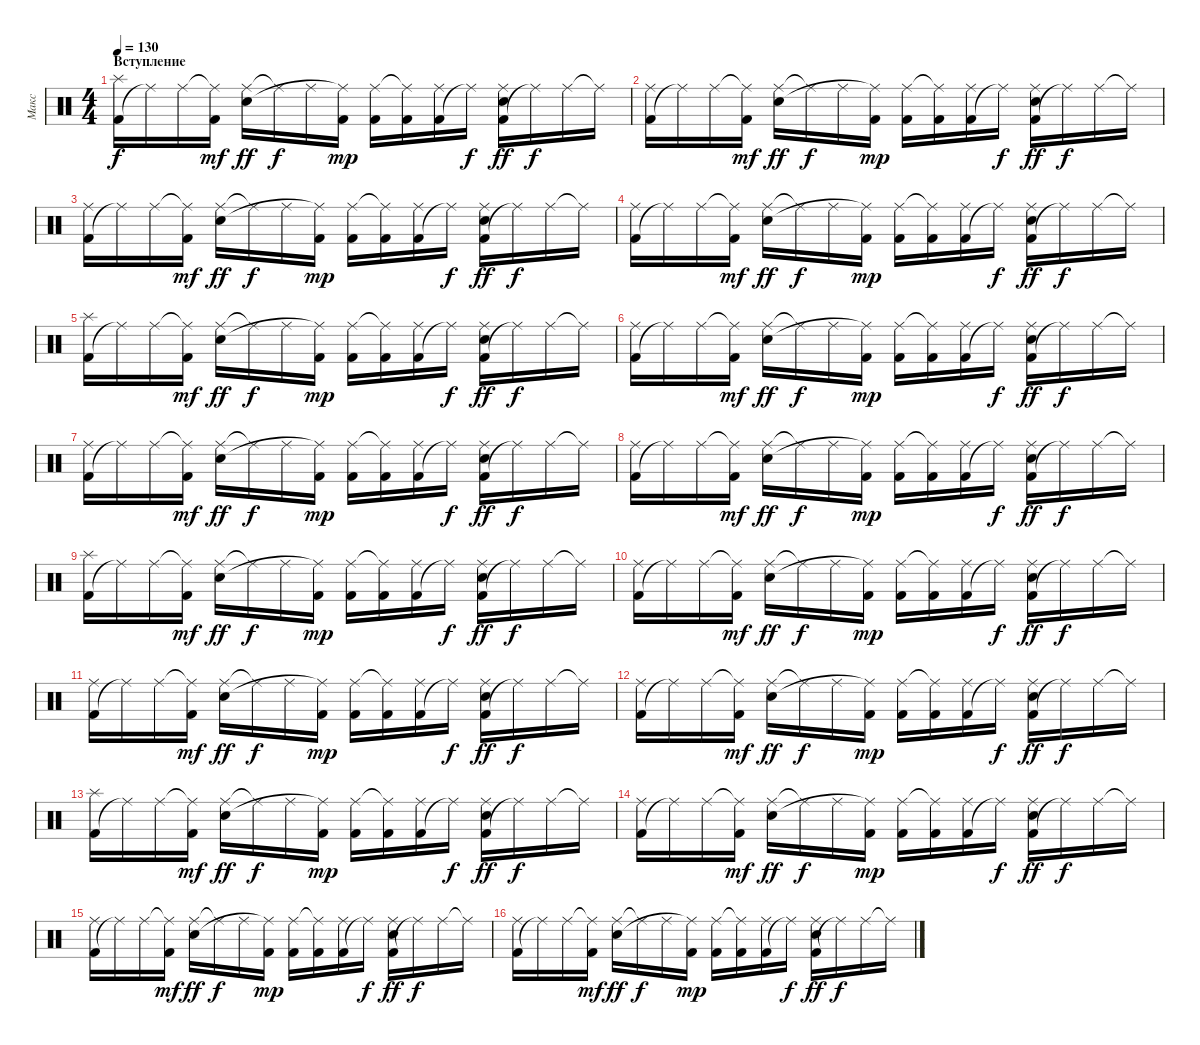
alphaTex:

\track ("Макс" "Макс") {instrument percussion}
\staff {score}
\articulation defaults
\ts (4 4)
\section ("" "Вступление")
\tempo 130
\clef neutral
\ks c
("Kick (hit) 2" "Splash (hit)").16{dy f} "Ride (middle)"{t}.16 "Ride (middle)".16 ("Ride (middle)"{t} "Kick (hit) 2").16{dy mf} ("Ride (middle)" "Electric Snare (hit)").16{dy ff} "Ride (middle)"{t}.16{dy f} "Ride (middle)".16 ("Kick (hit) 2" "Ride (middle)"{t}).16{dy mp} ("Kick (hit) 2" "Ride (middle)").16 ("Kick (hit) 2" "Ride (middle)"{t}).16 ("Kick (hit) 2" "Ride (middle)").16 "Ride (middle)"{t}.16{dy f} ("Kick (hit) 2" "Ride (middle)" "Electric Snare (hit)").16{dy ff} "Ride (middle)"{t}.16{dy f} "Ride (middle)".16 "Ride (middle)"{t}.16 |
("Kick (hit) 2" "Ride (middle)").16 "Ride (middle)"{t}.16 "Ride (middle)".16 ("Ride (middle)"{t} "Kick (hit) 2").16{dy mf} ("Ride (middle)" "Electric Snare (hit)").16{dy ff} "Ride (middle)"{t}.16{dy f} "Ride (middle)".16 ("Kick (hit) 2" "Ride (middle)"{t}).16{dy mp} ("Kick (hit) 2" "Ride (middle)").16 ("Kick (hit) 2" "Ride (middle)"{t}).16 ("Kick (hit) 2" "Ride (middle)").16 "Ride (middle)"{t}.16{dy f} ("Kick (hit) 2" "Ride (middle)" "Electric Snare (hit)").16{dy ff} "Ride (middle)"{t}.16{dy f} "Ride (middle)".16 "Ride (middle)"{t}.16 |
("Kick (hit) 2" "Ride (middle)").16 "Ride (middle)"{t}.16 "Ride (middle)".16 ("Ride (middle)"{t} "Kick (hit) 2").16{dy mf} ("Ride (middle)" "Electric Snare (hit)").16{dy ff} "Ride (middle)"{t}.16{dy f} "Ride (middle)".16 ("Kick (hit) 2" "Ride (middle)"{t}).16{dy mp} ("Kick (hit) 2" "Ride (middle)").16 ("Kick (hit) 2" "Ride (middle)"{t}).16 ("Kick (hit) 2" "Ride (middle)").16 "Ride (middle)"{t}.16{dy f} ("Kick (hit) 2" "Ride (middle)" "Electric Snare (hit)").16{dy ff} "Ride (middle)"{t}.16{dy f} "Ride (middle)".16 "Ride (middle)"{t}.16 |
("Kick (hit) 2" "Ride (middle)").16 "Ride (middle)"{t}.16 "Ride (middle)".16 ("Ride (middle)"{t} "Kick (hit) 2").16{dy mf} ("Ride (middle)" "Electric Snare (hit)").16{dy ff} "Ride (middle)"{t}.16{dy f} "Ride (middle)".16 ("Kick (hit) 2" "Ride (middle)"{t}).16{dy mp} ("Kick (hit) 2" "Ride (middle)").16 ("Kick (hit) 2" "Ride (middle)"{t}).16 ("Kick (hit) 2" "Ride (middle)").16 "Ride (middle)"{t}.16{dy f} ("Kick (hit) 2" "Ride (middle)" "Electric Snare (hit)").16{dy ff} "Ride (middle)"{t}.16{dy f} "Ride (middle)".16 "Ride (middle)"{t}.16 |
("Kick (hit) 2" "Splash (hit)").16 "Ride (middle)"{t}.16 "Ride (middle)".16 ("Ride (middle)"{t} "Kick (hit) 2").16{dy mf} ("Ride (middle)" "Electric Snare (hit)").16{dy ff} "Ride (middle)"{t}.16{dy f} "Ride (middle)".16 ("Kick (hit) 2" "Ride (middle)"{t}).16{dy mp} ("Kick (hit) 2" "Ride (middle)").16 ("Kick (hit) 2" "Ride (middle)"{t}).16 ("Kick (hit) 2" "Ride (middle)").16 "Ride (middle)"{t}.16{dy f} ("Kick (hit) 2" "Ride (middle)" "Electric Snare (hit)").16{dy ff} "Ride (middle)"{t}.16{dy f} "Ride (middle)".16 "Ride (middle)"{t}.16 |
("Kick (hit) 2" "Ride (middle)").16 "Ride (middle)"{t}.16 "Ride (middle)".16 ("Ride (middle)"{t} "Kick (hit) 2").16{dy mf} ("Ride (middle)" "Electric Snare (hit)").16{dy ff} "Ride (middle)"{t}.16{dy f} "Ride (middle)".16 ("Kick (hit) 2" "Ride (middle)"{t}).16{dy mp} ("Kick (hit) 2" "Ride (middle)").16 ("Kick (hit) 2" "Ride (middle)"{t}).16 ("Kick (hit) 2" "Ride (middle)").16 "Ride (middle)"{t}.16{dy f} ("Kick (hit) 2" "Ride (middle)" "Electric Snare (hit)").16{dy ff} "Ride (middle)"{t}.16{dy f} "Ride (middle)".16 "Ride (middle)"{t}.16 |
("Kick (hit) 2" "Ride (middle)").16 "Ride (middle)"{t}.16 "Ride (middle)".16 ("Ride (middle)"{t} "Kick (hit) 2").16{dy mf} ("Ride (middle)" "Electric Snare (hit)").16{dy ff} "Ride (middle)"{t}.16{dy f} "Ride (middle)".16 ("Kick (hit) 2" "Ride (middle)"{t}).16{dy mp} ("Kick (hit) 2" "Ride (middle)").16 ("Kick (hit) 2" "Ride (middle)"{t}).16 ("Kick (hit) 2" "Ride (middle)").16 "Ride (middle)"{t}.16{dy f} ("Kick (hit) 2" "Ride (middle)" "Electric Snare (hit)").16{dy ff} "Ride (middle)"{t}.16{dy f} "Ride (middle)".16 "Ride (middle)"{t}.16 |
("Kick (hit) 2" "Ride (middle)").16 "Ride (middle)"{t}.16 "Ride (middle)".16 ("Ride (middle)"{t} "Kick (hit) 2").16{dy mf} ("Ride (middle)" "Electric Snare (hit)").16{dy ff} "Ride (middle)"{t}.16{dy f} "Ride (middle)".16 ("Kick (hit) 2" "Ride (middle)"{t}).16{dy mp} ("Kick (hit) 2" "Ride (middle)").16 ("Kick (hit) 2" "Ride (middle)"{t}).16 ("Kick (hit) 2" "Ride (middle)").16 "Ride (middle)"{t}.16{dy f} ("Kick (hit) 2" "Ride (middle)" "Electric Snare (hit)").16{dy ff} "Ride (middle)"{t}.16{dy f} "Ride (middle)".16 "Ride (middle)"{t}.16 |
("Kick (hit) 2" "Splash (hit)").16 "Ride (middle)"{t}.16 "Ride (middle)".16 ("Ride (middle)"{t} "Kick (hit) 2").16{dy mf} ("Ride (middle)" "Electric Snare (hit)").16{dy ff} "Ride (middle)"{t}.16{dy f} "Ride (middle)".16 ("Kick (hit) 2" "Ride (middle)"{t}).16{dy mp} ("Kick (hit) 2" "Ride (middle)").16 ("Kick (hit) 2" "Ride (middle)"{t}).16 ("Kick (hit) 2" "Ride (middle)").16 "Ride (middle)"{t}.16{dy f} ("Kick (hit) 2" "Ride (middle)" "Electric Snare (hit)").16{dy ff} "Ride (middle)"{t}.16{dy f} "Ride (middle)".16 "Ride (middle)"{t}.16 |
("Kick (hit) 2" "Ride (middle)").16 "Ride (middle)"{t}.16 "Ride (middle)".16 ("Ride (middle)"{t} "Kick (hit) 2").16{dy mf} ("Ride (middle)" "Electric Snare (hit)").16{dy ff} "Ride (middle)"{t}.16{dy f} "Ride (middle)".16 ("Kick (hit) 2" "Ride (middle)"{t}).16{dy mp} ("Kick (hit) 2" "Ride (middle)").16 ("Kick (hit) 2" "Ride (middle)"{t}).16 ("Kick (hit) 2" "Ride (middle)").16 "Ride (middle)"{t}.16{dy f} ("Kick (hit) 2" "Ride (middle)" "Electric Snare (hit)").16{dy ff} "Ride (middle)"{t}.16{dy f} "Ride (middle)".16 "Ride (middle)"{t}.16 |
("Kick (hit) 2" "Ride (middle)").16 "Ride (middle)"{t}.16 "Ride (middle)".16 ("Ride (middle)"{t} "Kick (hit) 2").16{dy mf} ("Ride (middle)" "Electric Snare (hit)").16{dy ff} "Ride (middle)"{t}.16{dy f} "Ride (middle)".16 ("Kick (hit) 2" "Ride (middle)"{t}).16{dy mp} ("Kick (hit) 2" "Ride (middle)").16 ("Kick (hit) 2" "Ride (middle)"{t}).16 ("Kick (hit) 2" "Ride (middle)").16 "Ride (middle)"{t}.16{dy f} ("Kick (hit) 2" "Ride (middle)" "Electric Snare (hit)").16{dy ff} "Ride (middle)"{t}.16{dy f} "Ride (middle)".16 "Ride (middle)"{t}.16 |
("Kick (hit) 2" "Ride (middle)").16 "Ride (middle)"{t}.16 "Ride (middle)".16 ("Ride (middle)"{t} "Kick (hit) 2").16{dy mf} ("Ride (middle)" "Electric Snare (hit)").16{dy ff} "Ride (middle)"{t}.16{dy f} "Ride (middle)".16 ("Kick (hit) 2" "Ride (middle)"{t}).16{dy mp} ("Kick (hit) 2" "Ride (middle)").16 ("Kick (hit) 2" "Ride (middle)"{t}).16 ("Kick (hit) 2" "Ride (middle)").16 "Ride (middle)"{t}.16{dy f} ("Kick (hit) 2" "Ride (middle)" "Electric Snare (hit)").16{dy ff} "Ride (middle)"{t}.16{dy f} "Ride (middle)".16 "Ride (middle)"{t}.16 |
("Kick (hit) 2" "Splash (hit)").16 "Ride (middle)"{t}.16 "Ride (middle)".16 ("Ride (middle)"{t} "Kick (hit) 2").16{dy mf} ("Ride (middle)" "Electric Snare (hit)").16{dy ff} "Ride (middle)"{t}.16{dy f} "Ride (middle)".16 ("Kick (hit) 2" "Ride (middle)"{t}).16{dy mp} ("Kick (hit) 2" "Ride (middle)").16 ("Kick (hit) 2" "Ride (middle)"{t}).16 ("Kick (hit) 2" "Ride (middle)").16 "Ride (middle)"{t}.16{dy f} ("Kick (hit) 2" "Ride (middle)" "Electric Snare (hit)").16{dy ff} "Ride (middle)"{t}.16{dy f} "Ride (middle)".16 "Ride (middle)"{t}.16 |
("Kick (hit) 2" "Ride (middle)").16 "Ride (middle)"{t}.16 "Ride (middle)".16 ("Ride (middle)"{t} "Kick (hit) 2").16{dy mf} ("Ride (middle)" "Electric Snare (hit)").16{dy ff} "Ride (middle)"{t}.16{dy f} "Ride (middle)".16 ("Kick (hit) 2" "Ride (middle)"{t}).16{dy mp} ("Kick (hit) 2" "Ride (middle)").16 ("Kick (hit) 2" "Ride (middle)"{t}).16 ("Kick (hit) 2" "Ride (middle)").16 "Ride (middle)"{t}.16{dy f} ("Kick (hit) 2" "Ride (middle)" "Electric Snare (hit)").16{dy ff} "Ride (middle)"{t}.16{dy f} "Ride (middle)".16 "Ride (middle)"{t}.16 |
("Kick (hit) 2" "Ride (middle)").16 "Ride (middle)"{t}.16 "Ride (middle)".16 ("Ride (middle)"{t} "Kick (hit) 2").16{dy mf} ("Ride (middle)" "Electric Snare (hit)").16{dy ff} "Ride (middle)"{t}.16{dy f} "Ride (middle)".16 ("Kick (hit) 2" "Ride (middle)"{t}).16{dy mp} ("Kick (hit) 2" "Ride (middle)").16 ("Kick (hit) 2" "Ride (middle)"{t}).16 ("Kick (hit) 2" "Ride (middle)").16 "Ride (middle)"{t}.16{dy f} ("Kick (hit) 2" "Ride (middle)" "Electric Snare (hit)").16{dy ff} "Ride (middle)"{t}.16{dy f} "Ride (middle)".16 "Ride (middle)"{t}.16 |
("Kick (hit) 2" "Ride (middle)").16 "Ride (middle)"{t}.16 "Ride (middle)".16 ("Ride (middle)"{t} "Kick (hit) 2").16{dy mf} ("Ride (middle)" "Electric Snare (hit)").16{dy ff} "Ride (middle)"{t}.16{dy f} "Ride (middle)".16 ("Kick (hit) 2" "Ride (middle)"{t}).16{dy mp} ("Kick (hit) 2" "Ride (middle)").16 ("Kick (hit) 2" "Ride (middle)"{t}).16 ("Kick (hit) 2" "Ride (middle)").16 "Ride (middle)"{t}.16{dy f} ("Kick (hit) 2" "Ride (middle)" "Electric Snare (hit)").16{dy ff} "Ride (middle)"{t}.16{dy f} "Ride (middle)".16 "Ride (middle)"{t}.16
